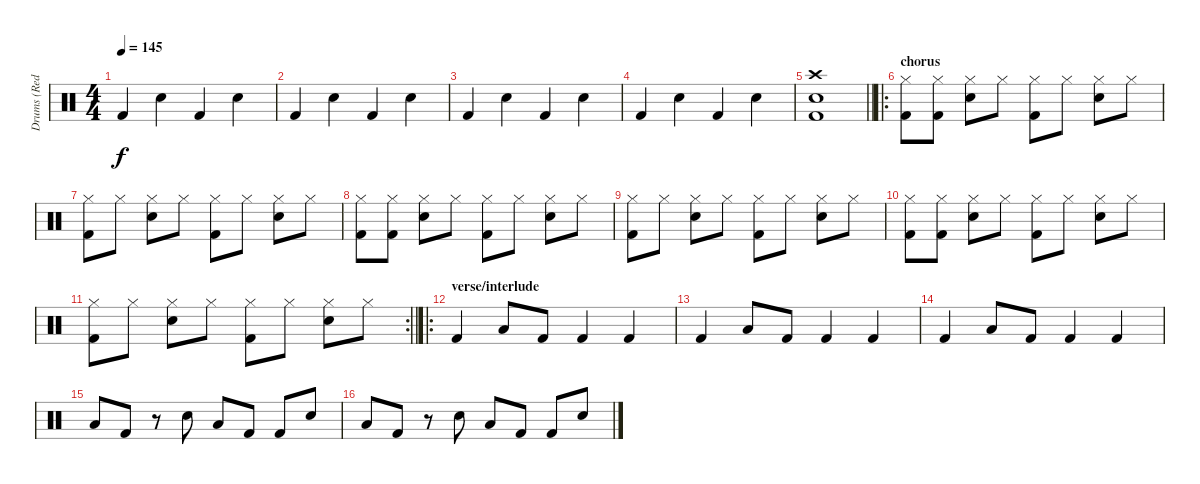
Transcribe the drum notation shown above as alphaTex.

\track ("Drums (Red)" "Drums (Red") {instrument percussion}
\staff {score}
\articulation defaults
\ts (4 4)
\tempo 145
\clef neutral
\ks c "Kick (hit) 2".4{dy f} "Electric Snare (hit)".4 "Kick (hit) 2".4 "Electric Snare (hit)".4
|
"Kick (hit) 2".4 "Electric Snare (hit)".4 "Kick (hit) 2".4 "Electric Snare (hit)".4 |
"Kick (hit) 2".4 "Electric Snare (hit)".4 "Kick (hit) 2".4 "Electric Snare (hit)".4 |
"Kick (hit) 2".4 "Electric Snare (hit)".4 "Kick (hit) 2".4 "Electric Snare (hit)".4 |
\barLineRight lightlight
("Crash high (hit)" "Electric Snare (hit)" "Kick (hit) 2").1 |
\ro
\section ("" "chorus")
("Hi-Hat (closed)" "Kick (hit) 2").8 ("Hi-Hat (closed)" "Kick (hit) 2").8 ("Hi-Hat (closed)" "Electric Snare (hit)").8 "Hi-Hat (closed)".8 ("Hi-Hat (closed)" "Kick (hit) 2").8 "Hi-Hat (closed)".8 ("Hi-Hat (closed)" "Electric Snare (hit)").8 "Hi-Hat (closed)".8 |
("Hi-Hat (closed)" "Kick (hit) 2").8 "Hi-Hat (closed)".8 ("Hi-Hat (closed)" "Electric Snare (hit)").8 "Hi-Hat (closed)".8 ("Hi-Hat (closed)" "Kick (hit) 2").8 "Hi-Hat (closed)".8 ("Hi-Hat (closed)" "Electric Snare (hit)").8 "Hi-Hat (closed)".8 |
("Hi-Hat (closed)" "Kick (hit) 2").8 ("Hi-Hat (closed)" "Kick (hit) 2").8 ("Hi-Hat (closed)" "Electric Snare (hit)").8 "Hi-Hat (closed)".8 ("Hi-Hat (closed)" "Kick (hit) 2").8 "Hi-Hat (closed)".8 ("Hi-Hat (closed)" "Electric Snare (hit)").8 "Hi-Hat (closed)".8 |
("Hi-Hat (closed)" "Kick (hit) 2").8 "Hi-Hat (closed)".8 ("Hi-Hat (closed)" "Electric Snare (hit)").8 "Hi-Hat (closed)".8 ("Hi-Hat (closed)" "Kick (hit) 2").8 "Hi-Hat (closed)".8 ("Hi-Hat (closed)" "Electric Snare (hit)").8 "Hi-Hat (closed)".8 |
("Hi-Hat (closed)" "Kick (hit) 2").8 ("Hi-Hat (closed)" "Kick (hit) 2").8 ("Hi-Hat (closed)" "Electric Snare (hit)").8 "Hi-Hat (closed)".8 ("Hi-Hat (closed)" "Kick (hit) 2").8 "Hi-Hat (closed)".8 ("Hi-Hat (closed)" "Electric Snare (hit)").8 "Hi-Hat (closed)".8 |
\rc 2
\barLineRight lightlight
("Hi-Hat (closed)" "Kick (hit) 2").8 "Hi-Hat (closed)".8 ("Hi-Hat (closed)" "Electric Snare (hit)").8 "Hi-Hat (closed)".8 ("Hi-Hat (closed)" "Kick (hit) 2").8 "Hi-Hat (closed)".8 ("Hi-Hat (closed)" "Electric Snare (hit)").8 "Hi-Hat (closed)".8 |
\ro
\section ("" "verse/interlude")
"Kick (hit) 2".4 "Low Floor Tom (hit)".8 "Kick (hit) 2".8 "Kick (hit) 2".4 "Kick (hit) 2".4 |
"Kick (hit) 2".4 "Low Floor Tom (hit)".8 "Kick (hit) 2".8 "Kick (hit) 2".4 "Kick (hit) 2".4 |
"Kick (hit) 2".4 "Low Floor Tom (hit)".8 "Kick (hit) 2".8 "Kick (hit) 2".4 "Kick (hit) 2".4 |
"Low Floor Tom (hit)".8 "Kick (hit) 2".8 r.8 "Electric Snare (hit)".8 "Low Floor Tom (hit)".8 "Kick (hit) 2".8 "Kick (hit) 2".8 "Electric Snare (hit)".8 |
"Low Floor Tom (hit)".8 "Kick (hit) 2".8 r.8 "Electric Snare (hit)".8 "Low Floor Tom (hit)".8 "Kick (hit) 2".8 "Kick (hit) 2".8 "Electric Snare (hit)".8
